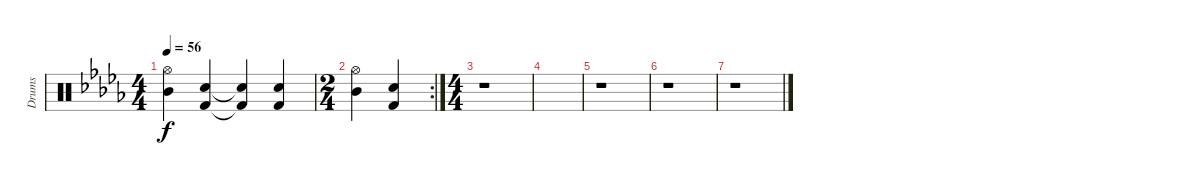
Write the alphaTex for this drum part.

\track ("Drums" "Drums") {instrument percussion}
\staff {score}
\articulation defaults
\ts (4 4)
\tempo 56
\clef neutral
\ks bbminor
("Mid Tom (hit)" "Hi-Hat (open)").4{dy f} ("Snare (hit) 2" "Kick (hit) 2").4 ("Snare (hit) 2"{t} "Kick (hit) 2"{t}).4 ("Snare (hit) 2" "Kick (hit) 2").4 |
\rc 2
\ts (2 4)
("Mid Tom (hit)" "Hi-Hat (open)").4 ("Snare (hit) 2" "Kick (hit) 2").4 |
\ts (4 4)
r.1 |
|
r.1 |
r.1 |
r.1
